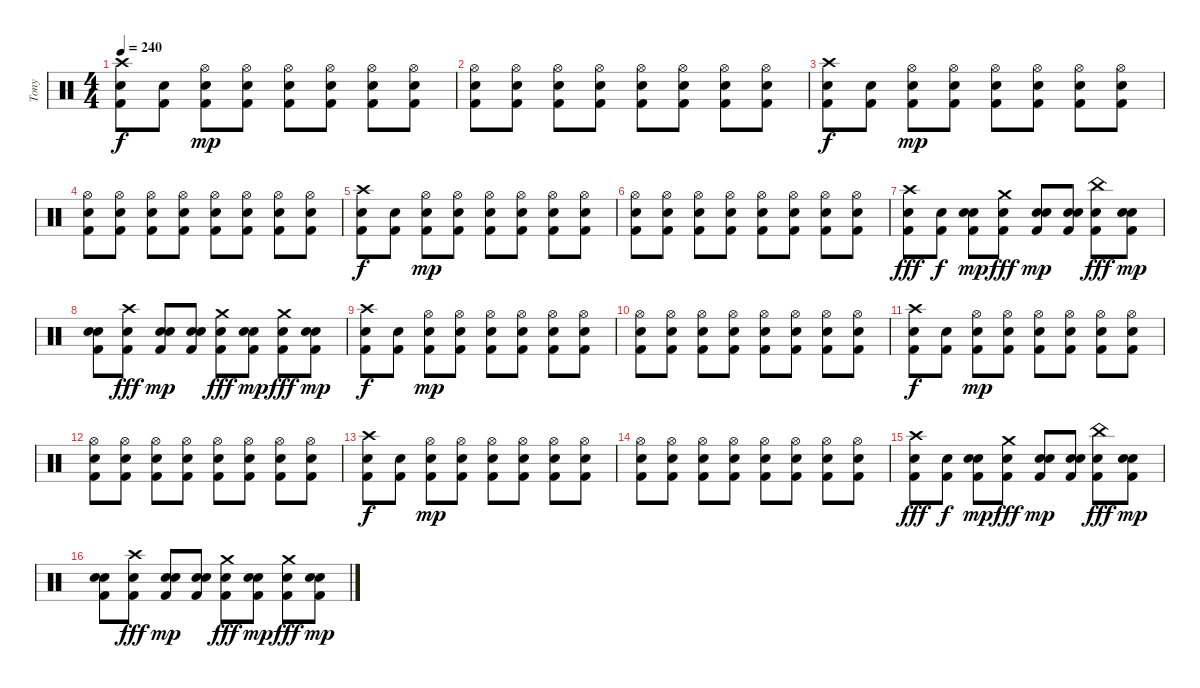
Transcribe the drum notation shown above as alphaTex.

\track ("Tony" "Tony") {instrument percussion}
\staff {score}
\articulation defaults
\ts (4 4)
\tempo 240
\clef neutral
\ks c
("Crash high (hit)" "Snare (hit) 2" "Kick (hit) 2").8{dy f} ("Snare (hit) 2" "Kick (hit) 2").8 ("Hi-Hat (open)" "Snare (hit) 2" "Kick (hit) 2").8{dy mp} ("Hi-Hat (open)" "Snare (hit) 2" "Kick (hit) 2").8 ("Hi-Hat (open)" "Snare (hit) 2" "Kick (hit) 2").8 ("Hi-Hat (open)" "Snare (hit) 2" "Kick (hit) 2").8 ("Hi-Hat (open)" "Snare (hit) 2" "Kick (hit) 2").8 ("Hi-Hat (open)" "Snare (hit) 2" "Kick (hit) 2").8 |
("Hi-Hat (open)" "Snare (hit) 2" "Kick (hit) 2").8 ("Hi-Hat (open)" "Snare (hit) 2" "Kick (hit) 2").8 ("Hi-Hat (open)" "Snare (hit) 2" "Kick (hit) 2").8 ("Hi-Hat (open)" "Snare (hit) 2" "Kick (hit) 2").8 ("Hi-Hat (open)" "Snare (hit) 2" "Kick (hit) 2").8 ("Hi-Hat (open)" "Snare (hit) 2" "Kick (hit) 2").8 ("Hi-Hat (open)" "Snare (hit) 2" "Kick (hit) 2").8 ("Hi-Hat (open)" "Snare (hit) 2" "Kick (hit) 2").8 |
("Crash high (hit)" "Snare (hit) 2" "Kick (hit) 2").8{dy f} ("Snare (hit) 2" "Kick (hit) 2").8 ("Hi-Hat (open)" "Snare (hit) 2" "Kick (hit) 2").8{dy mp} ("Hi-Hat (open)" "Snare (hit) 2" "Kick (hit) 2").8 ("Hi-Hat (open)" "Snare (hit) 2" "Kick (hit) 2").8 ("Hi-Hat (open)" "Snare (hit) 2" "Kick (hit) 2").8 ("Hi-Hat (open)" "Snare (hit) 2" "Kick (hit) 2").8 ("Hi-Hat (open)" "Snare (hit) 2" "Kick (hit) 2").8 |
("Hi-Hat (open)" "Snare (hit) 2" "Kick (hit) 2").8 ("Hi-Hat (open)" "Snare (hit) 2" "Kick (hit) 2").8 ("Hi-Hat (open)" "Snare (hit) 2" "Kick (hit) 2").8 ("Hi-Hat (open)" "Snare (hit) 2" "Kick (hit) 2").8 ("Hi-Hat (open)" "Snare (hit) 2" "Kick (hit) 2").8 ("Hi-Hat (open)" "Snare (hit) 2" "Kick (hit) 2").8 ("Hi-Hat (open)" "Snare (hit) 2" "Kick (hit) 2").8 ("Hi-Hat (open)" "Snare (hit) 2" "Kick (hit) 2").8 |
("Crash high (hit)" "Snare (hit) 2" "Kick (hit) 2").8{dy f} ("Snare (hit) 2" "Kick (hit) 2").8 ("Hi-Hat (open)" "Snare (hit) 2" "Kick (hit) 2").8{dy mp} ("Hi-Hat (open)" "Snare (hit) 2" "Kick (hit) 2").8 ("Hi-Hat (open)" "Snare (hit) 2" "Kick (hit) 2").8 ("Hi-Hat (open)" "Snare (hit) 2" "Kick (hit) 2").8 ("Hi-Hat (open)" "Snare (hit) 2" "Kick (hit) 2").8 ("Hi-Hat (open)" "Snare (hit) 2" "Kick (hit) 2").8 |
("Hi-Hat (open)" "Snare (hit) 2" "Kick (hit) 2").8 ("Hi-Hat (open)" "Snare (hit) 2" "Kick (hit) 2").8 ("Hi-Hat (open)" "Snare (hit) 2" "Kick (hit) 2").8 ("Hi-Hat (open)" "Snare (hit) 2" "Kick (hit) 2").8 ("Hi-Hat (open)" "Snare (hit) 2" "Kick (hit) 2").8 ("Hi-Hat (open)" "Snare (hit) 2" "Kick (hit) 2").8 ("Hi-Hat (open)" "Snare (hit) 2" "Kick (hit) 2").8 ("Hi-Hat (open)" "Snare (hit) 2" "Kick (hit) 2").8 |
("Crash high (hit)" "Snare (hit) 2" "Kick (hit) 2").8{dy fff} ("Snare (hit) 2" "Kick (hit) 2").8{dy f} ("Snare (hit)" "Snare (hit) 2" "Kick (hit) 2").8{dy mp} ("Crash medium (hit)" "Snare (hit) 2" "Kick (hit) 2").8{dy fff} ("Snare (hit)" "Snare (hit) 2" "Kick (hit) 2").8{dy mp} ("Snare (hit)" "Snare (hit) 2" "Kick (hit) 2").8 ("China (hit)" "Snare (hit) 2" "Kick (hit) 2").8{dy fff} ("Snare (hit)" "Snare (hit) 2" "Kick (hit) 2").8{dy mp} |
("Snare (hit)" "Snare (hit) 2" "Kick (hit) 2").8 ("Crash high (hit)" "Snare (hit) 2" "Kick (hit) 2").8{dy fff} ("Snare (hit)" "Snare (hit) 2" "Kick (hit) 2").8{dy mp} ("Snare (hit)" "Snare (hit) 2" "Kick (hit) 2").8 ("Crash medium (hit)" "Snare (hit) 2" "Kick (hit) 2").8{dy fff} ("Snare (hit)" "Snare (hit) 2" "Kick (hit) 2").8{dy mp} ("Crash medium (hit)" "Snare (hit) 2" "Kick (hit) 2").8{dy fff} ("Snare (hit)" "Snare (hit) 2" "Kick (hit) 2").8{dy mp} |
("Crash high (hit)" "Snare (hit) 2" "Kick (hit) 2").8{dy f} ("Snare (hit) 2" "Kick (hit) 2").8 ("Hi-Hat (open)" "Snare (hit) 2" "Kick (hit) 2").8{dy mp} ("Hi-Hat (open)" "Snare (hit) 2" "Kick (hit) 2").8 ("Hi-Hat (open)" "Snare (hit) 2" "Kick (hit) 2").8 ("Hi-Hat (open)" "Snare (hit) 2" "Kick (hit) 2").8 ("Hi-Hat (open)" "Snare (hit) 2" "Kick (hit) 2").8 ("Hi-Hat (open)" "Snare (hit) 2" "Kick (hit) 2").8 |
("Hi-Hat (open)" "Snare (hit) 2" "Kick (hit) 2").8 ("Hi-Hat (open)" "Snare (hit) 2" "Kick (hit) 2").8 ("Hi-Hat (open)" "Snare (hit) 2" "Kick (hit) 2").8 ("Hi-Hat (open)" "Snare (hit) 2" "Kick (hit) 2").8 ("Hi-Hat (open)" "Snare (hit) 2" "Kick (hit) 2").8 ("Hi-Hat (open)" "Snare (hit) 2" "Kick (hit) 2").8 ("Hi-Hat (open)" "Snare (hit) 2" "Kick (hit) 2").8 ("Hi-Hat (open)" "Snare (hit) 2" "Kick (hit) 2").8 |
("Crash high (hit)" "Snare (hit) 2" "Kick (hit) 2").8{dy f} ("Snare (hit) 2" "Kick (hit) 2").8 ("Hi-Hat (open)" "Snare (hit) 2" "Kick (hit) 2").8{dy mp} ("Hi-Hat (open)" "Snare (hit) 2" "Kick (hit) 2").8 ("Hi-Hat (open)" "Snare (hit) 2" "Kick (hit) 2").8 ("Hi-Hat (open)" "Snare (hit) 2" "Kick (hit) 2").8 ("Hi-Hat (open)" "Snare (hit) 2" "Kick (hit) 2").8 ("Hi-Hat (open)" "Snare (hit) 2" "Kick (hit) 2").8 |
("Hi-Hat (open)" "Snare (hit) 2" "Kick (hit) 2").8 ("Hi-Hat (open)" "Snare (hit) 2" "Kick (hit) 2").8 ("Hi-Hat (open)" "Snare (hit) 2" "Kick (hit) 2").8 ("Hi-Hat (open)" "Snare (hit) 2" "Kick (hit) 2").8 ("Hi-Hat (open)" "Snare (hit) 2" "Kick (hit) 2").8 ("Hi-Hat (open)" "Snare (hit) 2" "Kick (hit) 2").8 ("Hi-Hat (open)" "Snare (hit) 2" "Kick (hit) 2").8 ("Hi-Hat (open)" "Snare (hit) 2" "Kick (hit) 2").8 |
("Crash high (hit)" "Snare (hit) 2" "Kick (hit) 2").8{dy f} ("Snare (hit) 2" "Kick (hit) 2").8 ("Hi-Hat (open)" "Snare (hit) 2" "Kick (hit) 2").8{dy mp} ("Hi-Hat (open)" "Snare (hit) 2" "Kick (hit) 2").8 ("Hi-Hat (open)" "Snare (hit) 2" "Kick (hit) 2").8 ("Hi-Hat (open)" "Snare (hit) 2" "Kick (hit) 2").8 ("Hi-Hat (open)" "Snare (hit) 2" "Kick (hit) 2").8 ("Hi-Hat (open)" "Snare (hit) 2" "Kick (hit) 2").8 |
("Hi-Hat (open)" "Snare (hit) 2" "Kick (hit) 2").8 ("Hi-Hat (open)" "Snare (hit) 2" "Kick (hit) 2").8 ("Hi-Hat (open)" "Snare (hit) 2" "Kick (hit) 2").8 ("Hi-Hat (open)" "Snare (hit) 2" "Kick (hit) 2").8 ("Hi-Hat (open)" "Snare (hit) 2" "Kick (hit) 2").8 ("Hi-Hat (open)" "Snare (hit) 2" "Kick (hit) 2").8 ("Hi-Hat (open)" "Snare (hit) 2" "Kick (hit) 2").8 ("Hi-Hat (open)" "Snare (hit) 2" "Kick (hit) 2").8 |
("Crash high (hit)" "Snare (hit) 2" "Kick (hit) 2").8{dy fff} ("Snare (hit) 2" "Kick (hit) 2").8{dy f} ("Snare (hit)" "Snare (hit) 2" "Kick (hit) 2").8{dy mp} ("Crash medium (hit)" "Snare (hit) 2" "Kick (hit) 2").8{dy fff} ("Snare (hit)" "Snare (hit) 2" "Kick (hit) 2").8{dy mp} ("Snare (hit)" "Snare (hit) 2" "Kick (hit) 2").8 ("China (hit)" "Snare (hit) 2" "Kick (hit) 2").8{dy fff} ("Snare (hit)" "Snare (hit) 2" "Kick (hit) 2").8{dy mp} |
("Snare (hit)" "Snare (hit) 2" "Kick (hit) 2").8 ("Crash high (hit)" "Snare (hit) 2" "Kick (hit) 2").8{dy fff} ("Snare (hit)" "Snare (hit) 2" "Kick (hit) 2").8{dy mp} ("Snare (hit)" "Snare (hit) 2" "Kick (hit) 2").8 ("Crash medium (hit)" "Snare (hit) 2" "Kick (hit) 2").8{dy fff} ("Snare (hit)" "Snare (hit) 2" "Kick (hit) 2").8{dy mp} ("Crash medium (hit)" "Snare (hit) 2" "Kick (hit) 2").8{dy fff} ("Snare (hit)" "Snare (hit) 2" "Kick (hit) 2").8{dy mp}
